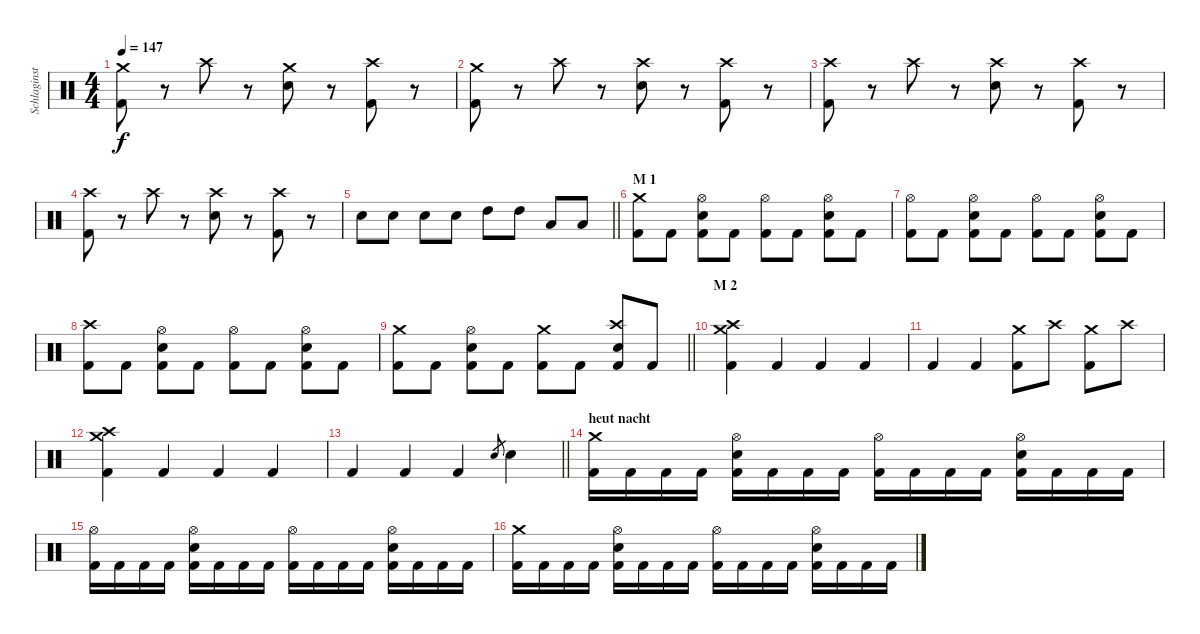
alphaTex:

\track ("Schlaginstrumente - Auswahl" "Schlaginst") {instrument percussion}
\staff {score}
\articulation defaults
\ts (4 4)
\tempo 147
\clef neutral
\ks c
("Crash medium (hit)" "Kick (hit) 2").8{dy f} r.8 "Crash high (hit)".8 r.8 ("Crash medium (hit)" "Snare (hit) 2").8 r.8 ("Crash high (hit)" "Kick (hit) 2").8 r.8 |
("Crash medium (hit)" "Kick (hit) 2").8 r.8 "Crash high (hit)".8 r.8 ("Crash high (hit)" "Snare (hit) 2").8 r.8 ("Crash high (hit)" "Kick (hit) 2").8 r.8 |
("Crash high (hit)" "Kick (hit) 2").8 r.8 "Crash high (hit)".8 r.8 ("Crash high (hit)" "Snare (hit) 2").8 r.8 ("Crash high (hit)" "Kick (hit) 2").8 r.8 |
("Crash high (hit)" "Kick (hit) 2").8 r.8 "Crash high (hit)".8 r.8 ("Crash high (hit)" "Snare (hit) 2").8 r.8 ("Crash high (hit)" "Kick (hit) 2").8 r.8 |
\barLineRight lightlight "Snare (hit) 2".8 "Snare (hit) 2".8 "Snare (hit) 2".8 "Snare (hit) 2".8 "High Tom (hit)".8 "High Tom (hit)".8 "Low Tom (hit)".8 "Low Tom (hit)".8
|
\section ("" "M 1")
("Crash medium (hit)" "Kick (hit) 2").8 "Kick (hit) 2".8 ("Hi-Hat (open)" "Snare (hit) 2" "Kick (hit) 2").8 "Kick (hit) 2".8 ("Hi-Hat (open)" "Kick (hit) 2").8 "Kick (hit) 2".8 ("Hi-Hat (open)" "Snare (hit) 2" "Kick (hit) 2").8 "Kick (hit) 2".8 |
("Hi-Hat (open)" "Kick (hit) 2").8 "Kick (hit) 2".8 ("Hi-Hat (open)" "Snare (hit) 2" "Kick (hit) 2").8 "Kick (hit) 2".8 ("Hi-Hat (open)" "Kick (hit) 2").8 "Kick (hit) 2".8 ("Hi-Hat (open)" "Snare (hit) 2" "Kick (hit) 2").8 "Kick (hit) 2".8 |
("Crash high (hit)" "Kick (hit) 2").8 "Kick (hit) 2".8 ("Hi-Hat (open)" "Snare (hit) 2" "Kick (hit) 2").8 "Kick (hit) 2".8 ("Hi-Hat (open)" "Kick (hit) 2").8 "Kick (hit) 2".8 ("Hi-Hat (open)" "Snare (hit) 2" "Kick (hit) 2").8 "Kick (hit) 2".8 |
\barLineRight lightlight
("Crash medium (hit)" "Kick (hit) 2").8 "Kick (hit) 2".8 ("Hi-Hat (open)" "Snare (hit) 2" "Kick (hit) 2").8 "Kick (hit) 2".8 ("Crash medium (hit)" "Kick (hit) 2").8 "Kick (hit) 2".8 ("Crash high (hit)" "Snare (hit) 2" "Kick (hit) 2").8 "Kick (hit) 2".8 |
\section ("" "M 2")
("Crash high (hit)" "Crash medium (hit)" "Kick (hit) 2").4 "Kick (hit) 2".4 "Kick (hit) 2".4 "Kick (hit) 2".4 |
"Kick (hit) 2".4 "Kick (hit) 2".4 ("Crash medium (hit)" "Kick (hit) 2").8 "Crash high (hit)".8 ("Crash medium (hit)" "Kick (hit) 2").8 "Crash high (hit)".8 |
("Crash high (hit)" "Crash medium (hit)" "Kick (hit) 2").4 "Kick (hit) 2".4 "Kick (hit) 2".4 "Kick (hit) 2".4 |
\barLineRight lightlight "Kick (hit) 2".4 "Kick (hit) 2".4 "Kick (hit) 2".4 "Snare (hit) 2".8{gr} "Snare (hit) 2".4
|
\section ("" "heut nacht")
("Crash medium (hit)" "Kick (hit) 2").16 "Kick (hit) 2".16 "Kick (hit) 2".16 "Kick (hit) 2".16 ("Hi-Hat (open)" "Snare (hit) 2" "Kick (hit) 2").16 "Kick (hit) 2".16 "Kick (hit) 2".16 "Kick (hit) 2".16 ("Hi-Hat (open)" "Kick (hit) 2").16 "Kick (hit) 2".16 "Kick (hit) 2".16 "Kick (hit) 2".16 ("Hi-Hat (open)" "Snare (hit) 2" "Kick (hit) 2").16 "Kick (hit) 2".16 "Kick (hit) 2".16 "Kick (hit) 2".16 |
("Hi-Hat (open)" "Kick (hit) 2").16 "Kick (hit) 2".16 "Kick (hit) 2".16 "Kick (hit) 2".16 ("Hi-Hat (open)" "Snare (hit) 2" "Kick (hit) 2").16 "Kick (hit) 2".16 "Kick (hit) 2".16 "Kick (hit) 2".16 ("Hi-Hat (open)" "Kick (hit) 2").16 "Kick (hit) 2".16 "Kick (hit) 2".16 "Kick (hit) 2".16 ("Hi-Hat (open)" "Snare (hit) 2" "Kick (hit) 2").16 "Kick (hit) 2".16 "Kick (hit) 2".16 "Kick (hit) 2".16 |
("Crash medium (hit)" "Kick (hit) 2").16 "Kick (hit) 2".16 "Kick (hit) 2".16 "Kick (hit) 2".16 ("Hi-Hat (open)" "Snare (hit) 2" "Kick (hit) 2").16 "Kick (hit) 2".16 "Kick (hit) 2".16 "Kick (hit) 2".16 ("Hi-Hat (open)" "Kick (hit) 2").16 "Kick (hit) 2".16 "Kick (hit) 2".16 "Kick (hit) 2".16 ("Hi-Hat (open)" "Snare (hit) 2" "Kick (hit) 2").16 "Kick (hit) 2".16 "Kick (hit) 2".16 "Kick (hit) 2".16
